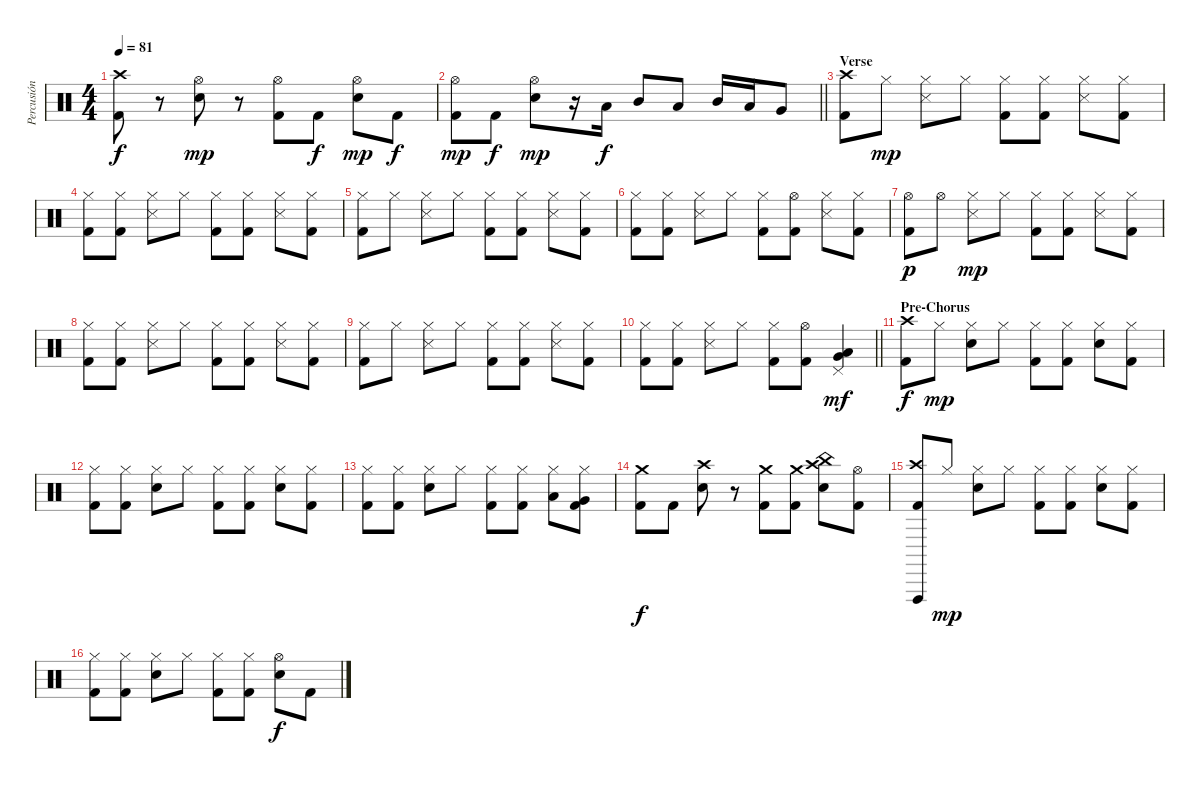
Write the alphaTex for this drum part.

\track ("Percusión" "Percusión") {instrument percussion}
\staff {score}
\articulation defaults
\ts (4 4)
\tempo 81
\clef neutral
\ks c
("Crash high (hit)" "Kick (hit) 2").8{dy f} r.8 ("Hi-Hat (open)" "Snare (hit) 2").8{dy mp} r.8 ("Hi-Hat (open)" "Kick (hit) 2").8 "Kick (hit) 2".8{dy f} ("Hi-Hat (open)" "Snare (hit) 2").8{dy mp} "Kick (hit) 2".8{dy f} |
\barLineRight lightlight
("Hi-Hat (open)" "Kick (hit) 2").8{dy mp} "Kick (hit) 2".8{dy f} ("Hi-Hat (open)" "Snare (hit) 2").8{dy mp} r.16 "Low Tom (hit)".16{dy f} "Mid Tom (hit)".8 "Low Tom (hit)".8 "Mid Tom (hit)".16 "Low Tom (hit)".16 "Very Low Tom (hit)".8 |
\section ("" "Verse")
("Crash high (hit)" "Kick (hit) 2").8 "Hi-Hat (closed)".8{dy mp} ("Hi-Hat (closed)" "Snare (side stick) 3").8 "Hi-Hat (closed)".8 ("Hi-Hat (closed)" "Kick (hit) 2").8 ("Hi-Hat (closed)" "Kick (hit) 2").8 ("Hi-Hat (closed)" "Snare (side stick) 3").8 ("Hi-Hat (closed)" "Kick (hit) 2").8 |
("Hi-Hat (closed)" "Kick (hit) 2").8 ("Hi-Hat (closed)" "Kick (hit) 2").8 ("Hi-Hat (closed)" "Snare (side stick) 3").8 "Hi-Hat (closed)".8 ("Hi-Hat (closed)" "Kick (hit) 2").8 ("Hi-Hat (closed)" "Kick (hit) 2").8 ("Hi-Hat (closed)" "Snare (side stick) 3").8 ("Hi-Hat (closed)" "Kick (hit) 2").8 |
("Hi-Hat (closed)" "Kick (hit) 2").8 "Hi-Hat (closed)".8 ("Hi-Hat (closed)" "Snare (side stick) 3").8 "Hi-Hat (closed)".8 ("Hi-Hat (closed)" "Kick (hit) 2").8 ("Hi-Hat (closed)" "Kick (hit) 2").8 ("Hi-Hat (closed)" "Snare (side stick) 3").8 ("Hi-Hat (closed)" "Kick (hit) 2").8 |
("Hi-Hat (closed)" "Kick (hit) 2").8 ("Hi-Hat (closed)" "Kick (hit) 2").8 ("Hi-Hat (closed)" "Snare (side stick) 3").8 "Hi-Hat (closed)".8 ("Hi-Hat (closed)" "Kick (hit) 2").8 ("Hi-Hat (open)" "Kick (hit) 2").8 ("Hi-Hat (closed)" "Snare (side stick) 3").8 ("Hi-Hat (closed)" "Kick (hit) 2").8 |
("Hi-Hat (open)" "Kick (hit) 2").8{dy p} "Hi-Hat (open)".8 ("Hi-Hat (closed)" "Snare (side stick) 3").8{dy mp} "Hi-Hat (closed)".8 ("Hi-Hat (closed)" "Kick (hit) 2").8 ("Hi-Hat (closed)" "Kick (hit) 2").8 ("Hi-Hat (closed)" "Snare (side stick) 3").8 ("Hi-Hat (closed)" "Kick (hit) 2").8 |
("Hi-Hat (closed)" "Kick (hit) 2").8 ("Hi-Hat (closed)" "Kick (hit) 2").8 ("Hi-Hat (closed)" "Snare (side stick) 3").8 "Hi-Hat (closed)".8 ("Hi-Hat (closed)" "Kick (hit) 2").8 ("Hi-Hat (closed)" "Kick (hit) 2").8 ("Hi-Hat (closed)" "Snare (side stick) 3").8 ("Hi-Hat (closed)" "Kick (hit) 2").8 |
("Hi-Hat (closed)" "Kick (hit) 2").8 "Hi-Hat (closed)".8 ("Hi-Hat (closed)" "Snare (side stick) 3").8 "Hi-Hat (closed)".8 ("Hi-Hat (closed)" "Kick (hit) 2").8 ("Hi-Hat (closed)" "Kick (hit) 2").8 ("Hi-Hat (closed)" "Snare (side stick) 3").8 ("Hi-Hat (closed)" "Kick (hit) 2").8 |
\barLineRight lightlight
("Hi-Hat (closed)" "Kick (hit) 2").8 ("Hi-Hat (closed)" "Kick (hit) 2").8 ("Hi-Hat (closed)" "Snare (side stick) 3").8 "Hi-Hat (closed)".8 ("Hi-Hat (closed)" "Kick (hit) 2").8 ("Hi-Hat (open)" "Kick (hit) 2").8 ("Pedal Hi-Hat (hit)" "Low Tom (hit)" "Very Low Tom (hit)").4{dy mf} |
\section ("" "Pre-Chorus")
("Crash high (hit)" "Kick (hit) 2").8{dy f} "Hi-Hat (closed)".8{dy mp} ("Hi-Hat (closed)" "Snare (hit) 2").8 "Hi-Hat (closed)".8 ("Hi-Hat (closed)" "Kick (hit) 2").8 ("Hi-Hat (closed)" "Kick (hit) 2").8 ("Hi-Hat (closed)" "Snare (hit) 2").8 ("Hi-Hat (closed)" "Kick (hit) 2").8 |
("Hi-Hat (closed)" "Kick (hit) 2").8 ("Hi-Hat (closed)" "Kick (hit) 2").8 ("Hi-Hat (closed)" "Snare (hit) 2").8 "Hi-Hat (closed)".8 ("Hi-Hat (closed)" "Kick (hit) 2").8 ("Hi-Hat (closed)" "Kick (hit) 2").8 ("Hi-Hat (closed)" "Snare (hit) 2").8 ("Hi-Hat (closed)" "Kick (hit) 2").8 |
("Hi-Hat (closed)" "Kick (hit) 2").8 ("Hi-Hat (closed)" "Kick (hit) 2").8 ("Hi-Hat (closed)" "Snare (hit) 2").8 "Hi-Hat (closed)".8 ("Hi-Hat (closed)" "Kick (hit) 2").8 ("Hi-Hat (closed)" "Kick (hit) 2").8 ("Hi-Hat (closed)" "Low Tom (hit)").8 ("Hi-Hat (closed)" "Very Low Tom (hit)" "Kick (hit) 2").8 |
("Crash medium (hit)" "Kick (hit) 2").8{dy f} "Kick (hit) 2".8 ("Crash high (hit)" "Snare (hit) 2").8 r.8 ("Crash medium (hit)" "Kick (hit) 2").8 ("Crash medium (hit)" "Kick (hit) 2").8 ("Crash high (hit)" "China (hit)" "Snare (hit) 2").8 ("Hi-Hat (open)" "Kick (hit) 2").8 |
("Crash high (hit)" "Vibraslap (hit)" "Kick (hit) 2").8 "Hi-Hat (closed)".8{dy mp} ("Hi-Hat (closed)" "Snare (hit) 2").8 "Hi-Hat (closed)".8 ("Hi-Hat (closed)" "Kick (hit) 2").8 ("Hi-Hat (closed)" "Kick (hit) 2").8 ("Hi-Hat (closed)" "Snare (hit) 2").8 ("Hi-Hat (closed)" "Kick (hit) 2").8 |
("Hi-Hat (closed)" "Kick (hit) 2").8 ("Hi-Hat (closed)" "Kick (hit) 2").8 ("Hi-Hat (closed)" "Snare (hit) 2").8 "Hi-Hat (closed)".8 ("Hi-Hat (closed)" "Kick (hit) 2").8 ("Hi-Hat (closed)" "Kick (hit) 2").8 ("Hi-Hat (open)" "Snare (hit) 2").8{dy f} "Kick (hit) 2".8
